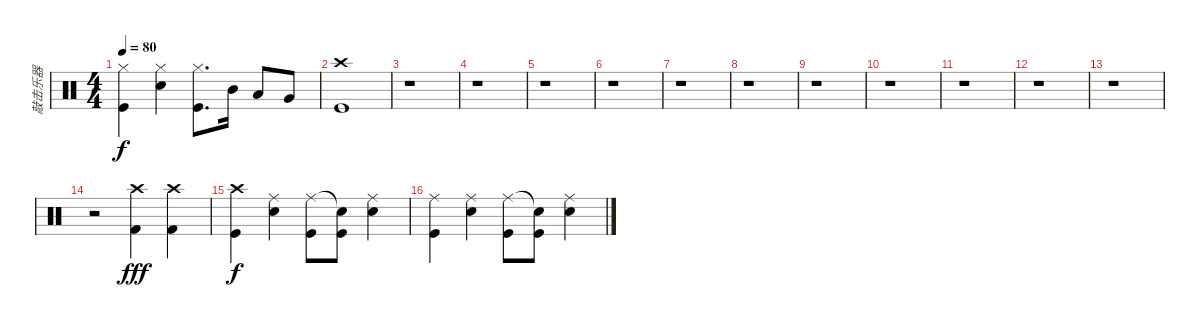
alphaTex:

\track ("敲击乐器" "敲击乐器") {instrument percussion}
\staff {score}
\articulation defaults
\ts (4 4)
\tempo 80
\clef neutral
\ks c
("Hi-Hat (closed)" "Kick (hit)").4{dy f} ("Hi-Hat (closed)" "Snare (hit) 2").4 ("Hi-Hat (closed)" "Kick (hit)").8{d} "Mid Tom (hit)".16 "Low Tom (hit)".8 "Very Low Tom (hit)".8 |
("Crash high (hit)" "Kick (hit)").1 |
r.1 |
r.1 |
r.1 |
r.1 |
r.1 |
r.1 |
r.1 |
r.1 |
r.1 |
r.1 |
r.1 |
r.2 ("Crash high (hit)" "Kick (hit) 2").4{dy fff} ("Crash high (hit)" "Kick (hit) 2").4 |
("Crash high (hit)" "Kick (hit)").4{dy f} ("Ride (middle)" "Snare (hit) 2").4 ("Ride (middle)" "Kick (hit)").8 ("Snare (hit)"{t} "Kick (hit)").8 ("Ride (middle)" "Snare (hit) 2").4 |
("Ride (middle)" "Kick (hit)").4 ("Ride (middle)" "Snare (hit) 2").4 ("Ride (middle)" "Kick (hit)").8 ("Snare (hit)"{t} "Kick (hit)").8 ("Ride (middle)" "Snare (hit) 2").4
